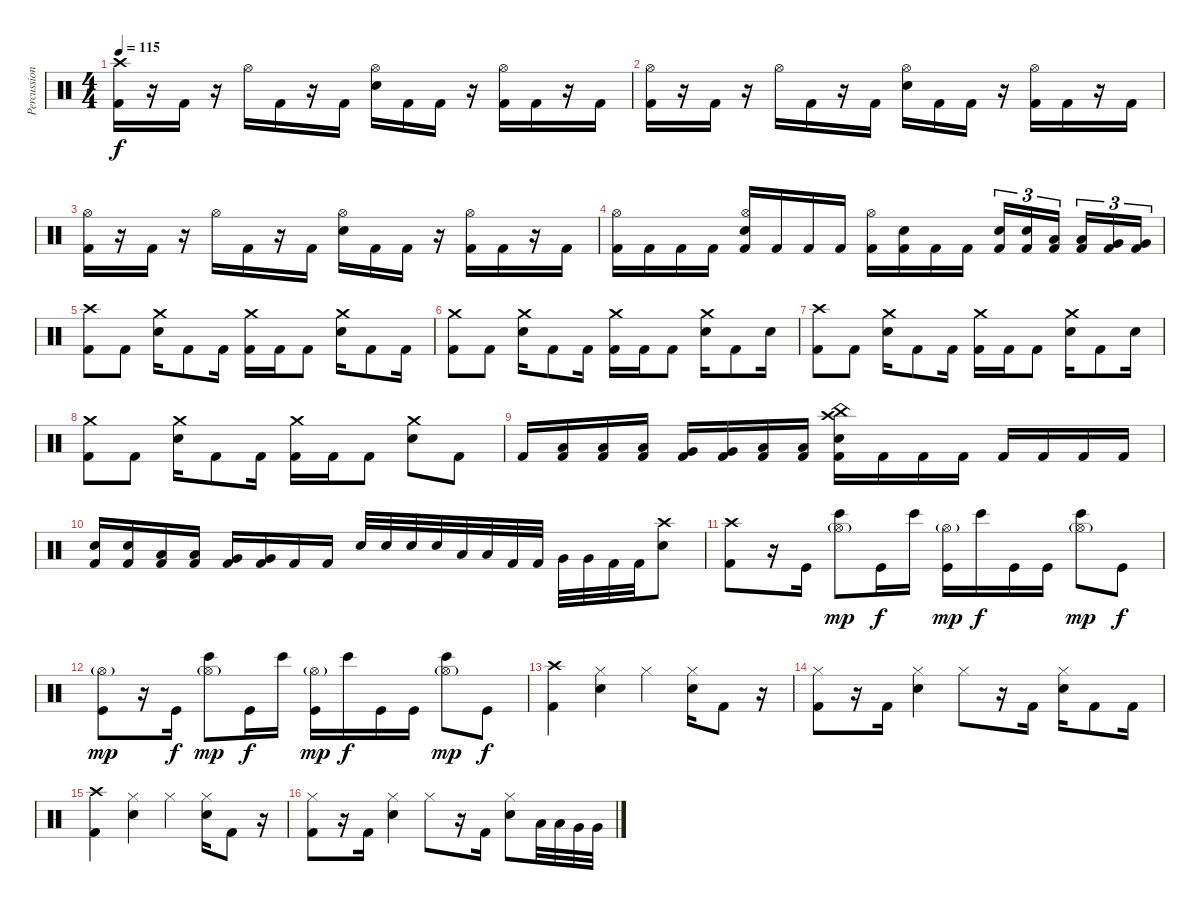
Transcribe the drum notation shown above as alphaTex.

\track ("Percussions" "Percussion") {instrument percussion}
\staff {score}
\articulation defaults
\ts (4 4)
\tempo 115
\clef neutral
\ks c
("Crash high (hit)" "Kick (hit) 2").16{dy f} r.16 "Kick (hit) 2".16 r.16 "Hi-Hat (open)".16 "Kick (hit) 2".16 r.16 "Kick (hit) 2".16 ("Hi-Hat (open)" "Electric Snare (hit)").16 "Kick (hit) 2".16 "Kick (hit) 2".16 r.16 ("Hi-Hat (open)" "Kick (hit) 2").16 "Kick (hit) 2".16 r.16 "Kick (hit) 2".16 |
("Hi-Hat (open)" "Kick (hit) 2").16 r.16 "Kick (hit) 2".16 r.16 "Hi-Hat (open)".16 "Kick (hit) 2".16 r.16 "Kick (hit) 2".16 ("Hi-Hat (open)" "Electric Snare (hit)").16 "Kick (hit) 2".16 "Kick (hit) 2".16 r.16 ("Hi-Hat (open)" "Kick (hit) 2").16 "Kick (hit) 2".16 r.16 "Kick (hit) 2".16 |
("Hi-Hat (open)" "Kick (hit) 2").16 r.16 "Kick (hit) 2".16 r.16 "Hi-Hat (open)".16 "Kick (hit) 2".16 r.16 "Kick (hit) 2".16 ("Hi-Hat (open)" "Electric Snare (hit)").16 "Kick (hit) 2".16 "Kick (hit) 2".16 r.16 ("Hi-Hat (open)" "Kick (hit) 2").16 "Kick (hit) 2".16 r.16 "Kick (hit) 2".16 |
("Hi-Hat (open)" "Kick (hit) 2").16 "Kick (hit) 2".16 "Kick (hit) 2".16 "Kick (hit) 2".16 ("Hi-Hat (open)" "Electric Snare (hit)" "Kick (hit) 2").16 "Kick (hit) 2".16 "Kick (hit) 2".16 "Kick (hit) 2".16 ("Hi-Hat (open)" "Kick (hit) 2").16 ("Electric Snare (hit)" "Kick (hit) 2").16 "Kick (hit) 2".16 "Kick (hit) 2".16 ("Electric Snare (hit)" "Kick (hit) 2").16{tu (3 2)} ("Electric Snare (hit)" "Kick (hit) 2").16{tu (3 2)} ("Low Tom (hit)" "Kick (hit) 2").16{tu (3 2)} ("Low Tom (hit)" "Kick (hit) 2").16{tu (3 2)} ("Very Low Tom (hit)" "Kick (hit) 2").16{tu (3 2)} ("Very Low Tom (hit)" "Kick (hit) 2").16{tu (3 2)} |
("Crash high (hit)" "Kick (hit) 2").8 "Kick (hit) 2".8 ("Crash medium (hit)" "Electric Snare (hit)").16 "Kick (hit) 2".8 "Kick (hit) 2".16 ("Crash medium (hit)" "Kick (hit) 2").16 "Kick (hit) 2".16 "Kick (hit) 2".8 ("Crash medium (hit)" "Electric Snare (hit)").16 "Kick (hit) 2".8 "Kick (hit) 2".16 |
("Crash medium (hit)" "Kick (hit) 2").8 "Kick (hit) 2".8 ("Crash medium (hit)" "Electric Snare (hit)").16 "Kick (hit) 2".8 "Kick (hit) 2".16 ("Crash medium (hit)" "Kick (hit) 2").16 "Kick (hit) 2".16 "Kick (hit) 2".8 ("Crash medium (hit)" "Electric Snare (hit)").16 "Kick (hit) 2".8 "Electric Snare (hit)".16 |
("Crash high (hit)" "Kick (hit) 2").8 "Kick (hit) 2".8 ("Crash medium (hit)" "Electric Snare (hit)").16 "Kick (hit) 2".8 "Kick (hit) 2".16 ("Crash medium (hit)" "Kick (hit) 2").16 "Kick (hit) 2".16 "Kick (hit) 2".8 ("Crash medium (hit)" "Electric Snare (hit)").16 "Kick (hit) 2".8 "Electric Snare (hit)".16 |
("Crash medium (hit)" "Kick (hit) 2").8 "Kick (hit) 2".8 ("Crash medium (hit)" "Electric Snare (hit)").16 "Kick (hit) 2".8 "Kick (hit) 2".16 ("Crash medium (hit)" "Kick (hit) 2").16 "Kick (hit) 2".16 "Kick (hit) 2".8 ("Crash medium (hit)" "Electric Snare (hit)").8 "Kick (hit) 2".8 |
"Kick (hit) 2".16 ("Low Tom (hit)" "Kick (hit) 2").16 ("Low Tom (hit)" "Kick (hit) 2").16 ("Low Tom (hit)" "Kick (hit) 2").16 ("Very Low Tom (hit)" "Kick (hit) 2").16 ("Very Low Tom (hit)" "Kick (hit) 2").16 ("Low Floor Tom (hit)" "Kick (hit) 2").16 ("Low Floor Tom (hit)" "Kick (hit) 2").16 ("China (hit)" "Crash high (hit)" "Electric Snare (hit)" "Kick (hit) 2").16 "Kick (hit) 2".16 "Kick (hit) 2".16 "Kick (hit) 2".16 "Kick (hit) 2".16 "Kick (hit) 2".16 "Kick (hit) 2".16 "Kick (hit) 2".16 |
("Electric Snare (hit)" "Kick (hit) 2").16 ("Electric Snare (hit)" "Kick (hit) 2").16 ("Low Tom (hit)" "Kick (hit) 2").16 ("Low Tom (hit)" "Kick (hit) 2").16 ("Very Low Tom (hit)" "Kick (hit) 2").16 ("Very Low Tom (hit)" "Kick (hit) 2").16 "Kick (hit) 2".16 "Kick (hit) 2".16 "Electric Snare (hit)".32 "Electric Snare (hit)".32 "Electric Snare (hit)".32 "Electric Snare (hit)".32 "Low Tom (hit)".32 "Low Tom (hit)".32 "Kick (hit) 2".32 "Kick (hit) 2".32 "Very Low Tom (hit)".32 "Very Low Tom (hit)".32 "Kick (hit) 2".32 "Kick (hit) 2".32 ("Crash high (hit)" "Electric Snare (hit)").8 |
("Crash high (hit)" "Kick (hit) 2").8 r.16 "Kick (hit)".16 ("Hi-Hat (open)"{g} "Bongo High (hit)").8{dy mp} "Kick (hit)".16{dy f} "Bongo High (hit)".16 ("Hi-Hat (open)"{g} "Kick (hit)").16{dy mp} "Bongo High (hit)".16{dy f} "Kick (hit)".16 "Kick (hit)".16 ("Hi-Hat (open)"{g} "Bongo High (hit)").8{dy mp} "Kick (hit)".8{dy f} |
("Hi-Hat (open)"{g} "Kick (hit)").8{dy mp} r.16 "Kick (hit)".16{dy f} ("Hi-Hat (open)"{g} "Bongo High (hit)").8{dy mp} "Kick (hit)".16{dy f} "Bongo High (hit)".16 ("Hi-Hat (open)"{g} "Kick (hit)").16{dy mp} "Bongo High (hit)".16{dy f} "Kick (hit)".16 "Kick (hit)".16 ("Hi-Hat (open)"{g} "Bongo High (hit)").8{dy mp} "Kick (hit)".8{dy f} |
("Crash high (hit)" "Kick (hit) 2").4 ("Hi-Hat (closed)" "Electric Snare (hit)").4 "Hi-Hat (closed)".4 ("Hi-Hat (closed)" "Electric Snare (hit)").16 "Kick (hit) 2".8 r.16 |
("Hi-Hat (closed)" "Kick (hit) 2").8 r.16 "Kick (hit) 2".16 ("Hi-Hat (closed)" "Electric Snare (hit)").4 "Hi-Hat (closed)".8 r.16 "Kick (hit) 2".16 ("Hi-Hat (closed)" "Electric Snare (hit)").16 "Kick (hit) 2".8 "Kick (hit) 2".16 |
("Crash high (hit)" "Kick (hit) 2").4 ("Hi-Hat (closed)" "Electric Snare (hit)").4 "Hi-Hat (closed)".4 ("Hi-Hat (closed)" "Electric Snare (hit)").16 "Kick (hit) 2".8 r.16 |
("Hi-Hat (closed)" "Kick (hit) 2").8 r.16 "Kick (hit) 2".16 ("Hi-Hat (closed)" "Electric Snare (hit)").4 "Hi-Hat (closed)".8 r.16 "Kick (hit) 2".16 ("Hi-Hat (closed)" "Electric Snare (hit)").8 "Low Tom (hit)".32 "Low Tom (hit)".32 "Very Low Tom (hit)".32 "Very Low Tom (hit)".32
